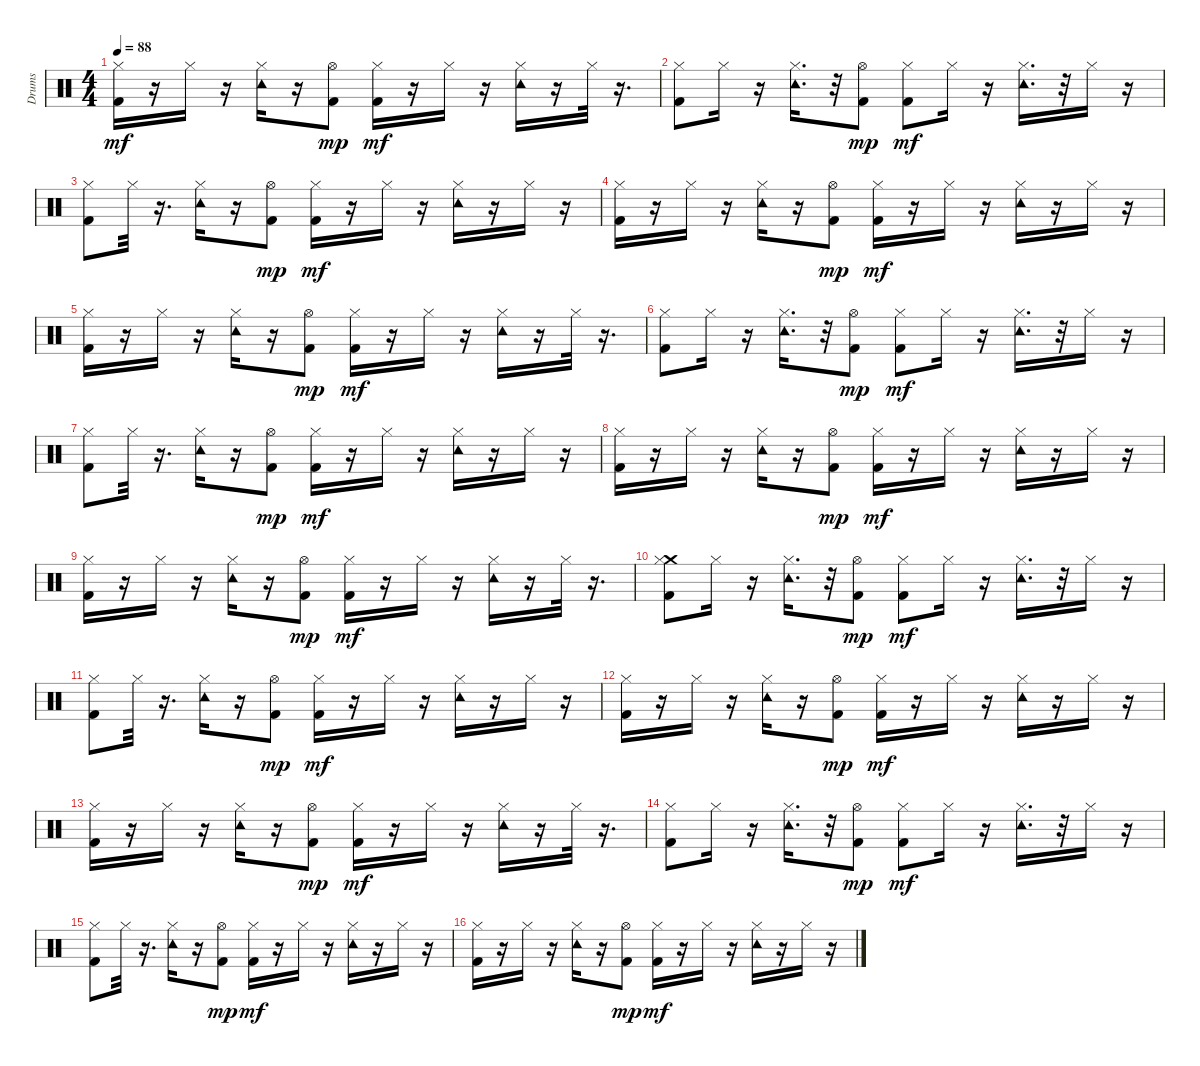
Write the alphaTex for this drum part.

\track ("Drums" "Drums") {instrument percussion}
\staff {score}
\articulation defaults
\ts (4 4)
\tempo 88
\clef neutral
\ks c
("Kick (hit) 2" "Hi-Hat (closed)").16{dy mf} r.16 "Hi-Hat (closed)".16 r.16 ("Tambourine (hit)" "Hi-Hat (closed)").16 r.16 ("Kick (hit) 2" "Hi-Hat (open)").8{dy mp} ("Kick (hit) 2" "Hi-Hat (closed)").16{dy mf} r.16 "Hi-Hat (closed)".16 r.16 ("Tambourine (hit)" "Hi-Hat (closed)").16 r.16 "Hi-Hat (closed)".32 r.16{d} |
("Kick (hit) 2" "Hi-Hat (closed)").8 "Hi-Hat (closed)".16 r.16 ("Tambourine (hit)" "Hi-Hat (closed)").16{d} r.32 ("Kick (hit) 2" "Hi-Hat (open)").8{dy mp} ("Kick (hit) 2" "Hi-Hat (closed)").8{dy mf} "Hi-Hat (closed)".16 r.16 ("Tambourine (hit)" "Hi-Hat (closed)").16{d} r.32 "Hi-Hat (closed)".16 r.16 |
("Kick (hit) 2" "Hi-Hat (closed)").8 "Hi-Hat (closed)".32 r.16{d} ("Tambourine (hit)" "Hi-Hat (closed)").16 r.16 ("Kick (hit) 2" "Hi-Hat (open)").8{dy mp} ("Kick (hit) 2" "Hi-Hat (closed)").16{dy mf} r.16 "Hi-Hat (closed)".16 r.16 ("Tambourine (hit)" "Hi-Hat (closed)").16 r.16 "Hi-Hat (closed)".16 r.16 |
("Kick (hit) 2" "Hi-Hat (closed)").16 r.16 "Hi-Hat (closed)".16 r.16 ("Tambourine (hit)" "Hi-Hat (closed)").16 r.16 ("Kick (hit) 2" "Hi-Hat (open)").8{dy mp} ("Kick (hit) 2" "Hi-Hat (closed)").16{dy mf} r.16 "Hi-Hat (closed)".16 r.16 ("Tambourine (hit)" "Hi-Hat (closed)").16 r.16 "Hi-Hat (closed)".16 r.16 |
("Kick (hit) 2" "Hi-Hat (closed)").16 r.16 "Hi-Hat (closed)".16 r.16 ("Tambourine (hit)" "Hi-Hat (closed)").16 r.16 ("Kick (hit) 2" "Hi-Hat (open)").8{dy mp} ("Kick (hit) 2" "Hi-Hat (closed)").16{dy mf} r.16 "Hi-Hat (closed)".16 r.16 ("Tambourine (hit)" "Hi-Hat (closed)").16 r.16 "Hi-Hat (closed)".32 r.16{d} |
("Kick (hit) 2" "Hi-Hat (closed)").8 "Hi-Hat (closed)".16 r.16 ("Tambourine (hit)" "Hi-Hat (closed)").16{d} r.32 ("Kick (hit) 2" "Hi-Hat (open)").8{dy mp} ("Kick (hit) 2" "Hi-Hat (closed)").8{dy mf} "Hi-Hat (closed)".16 r.16 ("Tambourine (hit)" "Hi-Hat (closed)").16{d} r.32 "Hi-Hat (closed)".16 r.16 |
("Kick (hit) 2" "Hi-Hat (closed)").8 "Hi-Hat (closed)".32 r.16{d} ("Tambourine (hit)" "Hi-Hat (closed)").16 r.16 ("Kick (hit) 2" "Hi-Hat (open)").8{dy mp} ("Kick (hit) 2" "Hi-Hat (closed)").16{dy mf} r.16 "Hi-Hat (closed)".16 r.16 ("Tambourine (hit)" "Hi-Hat (closed)").16 r.16 "Hi-Hat (closed)".16 r.16 |
("Kick (hit) 2" "Hi-Hat (closed)").16 r.16 "Hi-Hat (closed)".16 r.16 ("Tambourine (hit)" "Hi-Hat (closed)").16 r.16 ("Kick (hit) 2" "Hi-Hat (open)").8{dy mp} ("Kick (hit) 2" "Hi-Hat (closed)").16{dy mf} r.16 "Hi-Hat (closed)".16 r.16 ("Tambourine (hit)" "Hi-Hat (closed)").16 r.16 "Hi-Hat (closed)".16 r.16 |
("Kick (hit) 2" "Hi-Hat (closed)").16 r.16 "Hi-Hat (closed)".16 r.16 ("Tambourine (hit)" "Hi-Hat (closed)").16 r.16 ("Kick (hit) 2" "Hi-Hat (open)").8{dy mp} ("Kick (hit) 2" "Hi-Hat (closed)").16{dy mf} r.16 "Hi-Hat (closed)".16 r.16 ("Tambourine (hit)" "Hi-Hat (closed)").16 r.16 "Hi-Hat (closed)".32 r.16{d} |
("Crash medium (hit)" "Kick (hit) 2" "Hi-Hat (closed)").8 "Hi-Hat (closed)".16 r.16 ("Tambourine (hit)" "Hi-Hat (closed)").16{d} r.32 ("Kick (hit) 2" "Hi-Hat (open)").8{dy mp} ("Kick (hit) 2" "Hi-Hat (closed)").8{dy mf} "Hi-Hat (closed)".16 r.16 ("Tambourine (hit)" "Hi-Hat (closed)").16{d} r.32 "Hi-Hat (closed)".16 r.16 |
("Kick (hit) 2" "Hi-Hat (closed)").8 "Hi-Hat (closed)".32 r.16{d} ("Tambourine (hit)" "Hi-Hat (closed)").16 r.16 ("Kick (hit) 2" "Hi-Hat (open)").8{dy mp} ("Kick (hit) 2" "Hi-Hat (closed)").16{dy mf} r.16 "Hi-Hat (closed)".16 r.16 ("Tambourine (hit)" "Hi-Hat (closed)").16 r.16 "Hi-Hat (closed)".16 r.16 |
("Kick (hit) 2" "Hi-Hat (closed)").16 r.16 "Hi-Hat (closed)".16 r.16 ("Tambourine (hit)" "Hi-Hat (closed)").16 r.16 ("Kick (hit) 2" "Hi-Hat (open)").8{dy mp} ("Kick (hit) 2" "Hi-Hat (closed)").16{dy mf} r.16 "Hi-Hat (closed)".16 r.16 ("Tambourine (hit)" "Hi-Hat (closed)").16 r.16 "Hi-Hat (closed)".16 r.16 |
("Kick (hit) 2" "Hi-Hat (closed)").16 r.16 "Hi-Hat (closed)".16 r.16 ("Tambourine (hit)" "Hi-Hat (closed)").16 r.16 ("Kick (hit) 2" "Hi-Hat (open)").8{dy mp} ("Kick (hit) 2" "Hi-Hat (closed)").16{dy mf} r.16 "Hi-Hat (closed)".16 r.16 ("Tambourine (hit)" "Hi-Hat (closed)").16 r.16 "Hi-Hat (closed)".32 r.16{d} |
("Kick (hit) 2" "Hi-Hat (closed)").8 "Hi-Hat (closed)".16 r.16 ("Tambourine (hit)" "Hi-Hat (closed)").16{d} r.32 ("Kick (hit) 2" "Hi-Hat (open)").8{dy mp} ("Kick (hit) 2" "Hi-Hat (closed)").8{dy mf} "Hi-Hat (closed)".16 r.16 ("Tambourine (hit)" "Hi-Hat (closed)").16{d} r.32 "Hi-Hat (closed)".16 r.16 |
("Kick (hit) 2" "Hi-Hat (closed)").8 "Hi-Hat (closed)".32 r.16{d} ("Tambourine (hit)" "Hi-Hat (closed)").16 r.16 ("Kick (hit) 2" "Hi-Hat (open)").8{dy mp} ("Kick (hit) 2" "Hi-Hat (closed)").16{dy mf} r.16 "Hi-Hat (closed)".16 r.16 ("Tambourine (hit)" "Hi-Hat (closed)").16 r.16 "Hi-Hat (closed)".16 r.16 |
("Kick (hit) 2" "Hi-Hat (closed)").16 r.16 "Hi-Hat (closed)".16 r.16 ("Tambourine (hit)" "Hi-Hat (closed)").16 r.16 ("Kick (hit) 2" "Hi-Hat (open)").8{dy mp} ("Kick (hit) 2" "Hi-Hat (closed)").16{dy mf} r.16 "Hi-Hat (closed)".16 r.16 ("Tambourine (hit)" "Hi-Hat (closed)").16 r.16 "Hi-Hat (closed)".16 r.16
